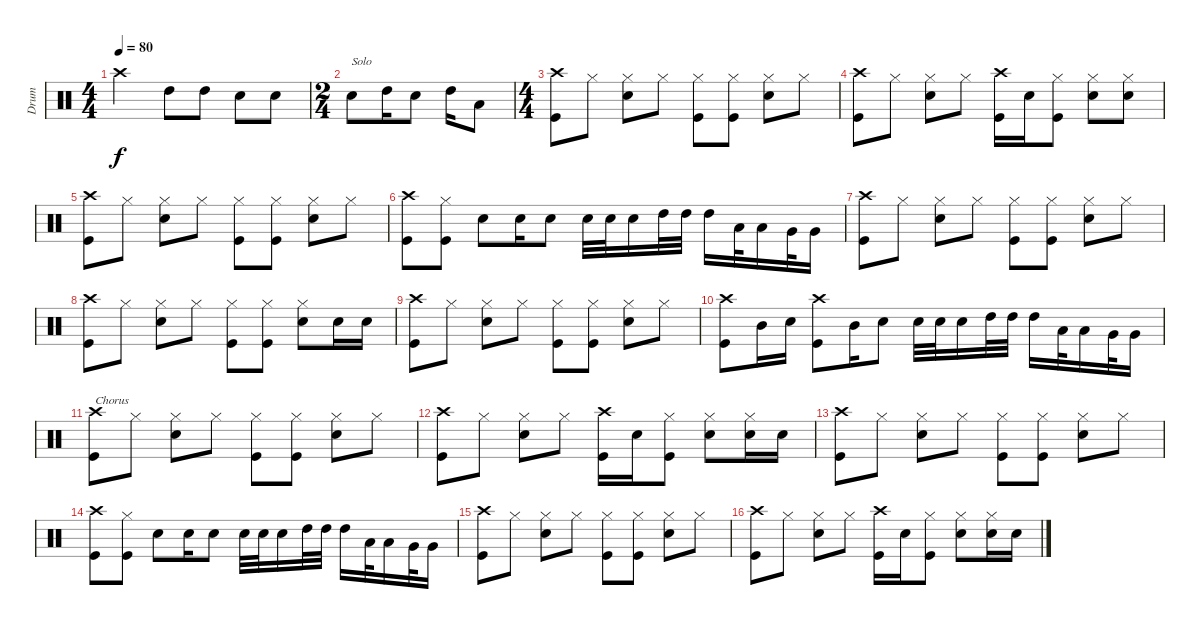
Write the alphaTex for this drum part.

\track ("Drum" "Drum") {instrument percussion}
\staff {score}
\articulation defaults
\ts (4 4)
\tempo 80
\clef neutral
\ks c "Crash high (hit)".2{dy f} "High Tom (hit)".8 "High Tom (hit)".8 "Snare (hit) 2".8 "Snare (hit) 2".8
|
\ts (2 4)
"Snare (hit) 2".8{txt "Solo"} "High Tom (hit)".16 "Snare (hit) 2".8 "High Tom (hit)".16 "Low Tom (hit)".8 |
\ts (4 4)
("Crash high (hit)" "Kick (hit)").8 "Hi-Hat (closed)".8 ("Hi-Hat (closed)" "Snare (hit) 2").8 "Hi-Hat (closed)".8 ("Hi-Hat (closed)" "Kick (hit)").8 ("Hi-Hat (closed)" "Kick (hit)").8 ("Hi-Hat (closed)" "Snare (hit) 2").8 "Hi-Hat (closed)".8 |
("Crash high (hit)" "Kick (hit)").8 "Hi-Hat (closed)".8 ("Hi-Hat (closed)" "Snare (hit) 2").8 "Hi-Hat (closed)".8 ("Crash high (hit)" "Kick (hit)").16 "Snare (hit) 2".16 ("Hi-Hat (closed)" "Kick (hit)").8 ("Hi-Hat (closed)" "Snare (hit) 2").8 ("Hi-Hat (closed)" "Snare (hit) 2").8 |
("Crash high (hit)" "Kick (hit)").8 "Hi-Hat (closed)".8 ("Hi-Hat (closed)" "Snare (hit) 2").8 "Hi-Hat (closed)".8 ("Hi-Hat (closed)" "Kick (hit)").8 ("Hi-Hat (closed)" "Kick (hit)").8 ("Hi-Hat (closed)" "Snare (hit) 2").8 "Hi-Hat (closed)".8 |
("Crash high (hit)" "Kick (hit)").8 ("Hi-Hat (closed)" "Kick (hit)").8 "Snare (hit) 2".8 "Snare (hit) 2".16 "Snare (hit) 2".8 "Snare (hit) 2".32 "Snare (hit) 2".32 "Snare (hit) 2".16 "High Tom (hit)".32 "High Tom (hit)".32 "High Tom (hit)".16 "Low Tom (hit)".32 "Low Tom (hit)".16 "Very Low Tom (hit)".32 "Very Low Tom (hit)".16 |
("Crash high (hit)" "Kick (hit)").8 "Hi-Hat (closed)".8 ("Hi-Hat (closed)" "Snare (hit) 2").8 "Hi-Hat (closed)".8 ("Hi-Hat (closed)" "Kick (hit)").8 ("Hi-Hat (closed)" "Kick (hit)").8 ("Hi-Hat (closed)" "Snare (hit) 2").8 "Hi-Hat (closed)".8 |
("Crash high (hit)" "Kick (hit)").8 "Hi-Hat (closed)".8 ("Hi-Hat (closed)" "Snare (hit) 2").8 "Hi-Hat (closed)".8 ("Hi-Hat (closed)" "Kick (hit)").8 ("Hi-Hat (closed)" "Kick (hit)").8 ("Hi-Hat (closed)" "Snare (hit) 2").8 "Snare (hit) 2".16 "Snare (hit) 2".16 |
("Crash high (hit)" "Kick (hit)").8 "Hi-Hat (closed)".8 ("Hi-Hat (closed)" "Snare (hit) 2").8 "Hi-Hat (closed)".8 ("Hi-Hat (closed)" "Kick (hit)").8 ("Hi-Hat (closed)" "Kick (hit)").8 ("Hi-Hat (closed)" "Snare (hit) 2").8 "Hi-Hat (closed)".8 |
("Crash high (hit)" "Kick (hit)").8 "Mid Tom (hit)".16 "Snare (hit) 2".16 ("Crash high (hit)" "Kick (hit)").8 "Mid Tom (hit)".16 "Snare (hit) 2".8 "Snare (hit) 2".32 "Snare (hit) 2".32 "Snare (hit) 2".16 "High Tom (hit)".32 "High Tom (hit)".32 "High Tom (hit)".16 "Low Tom (hit)".32 "Low Tom (hit)".16 "Very Low Tom (hit)".32 "Very Low Tom (hit)".16 |
("Crash high (hit)" "Kick (hit)").8{txt "Chorus"} "Hi-Hat (closed)".8 ("Hi-Hat (closed)" "Snare (hit) 2").8 "Hi-Hat (closed)".8 ("Hi-Hat (closed)" "Kick (hit)").8 ("Hi-Hat (closed)" "Kick (hit)").8 ("Hi-Hat (closed)" "Snare (hit) 2").8 "Hi-Hat (closed)".8 |
("Crash high (hit)" "Kick (hit)").8 "Hi-Hat (closed)".8 ("Hi-Hat (closed)" "Snare (hit) 2").8 "Hi-Hat (closed)".8 ("Crash high (hit)" "Kick (hit)").16 "Snare (hit) 2".16 ("Hi-Hat (closed)" "Kick (hit)").8 ("Hi-Hat (closed)" "Snare (hit) 2").8 ("Hi-Hat (closed)" "Snare (hit) 2").16 "Snare (hit) 2".16 |
("Crash high (hit)" "Kick (hit)").8 "Hi-Hat (closed)".8 ("Hi-Hat (closed)" "Snare (hit) 2").8 "Hi-Hat (closed)".8 ("Hi-Hat (closed)" "Kick (hit)").8 ("Hi-Hat (closed)" "Kick (hit)").8 ("Hi-Hat (closed)" "Snare (hit) 2").8 "Hi-Hat (closed)".8 |
("Crash high (hit)" "Kick (hit)").8 ("Hi-Hat (closed)" "Kick (hit)").8 "Snare (hit) 2".8 "Snare (hit) 2".16 "Snare (hit) 2".8 "Snare (hit) 2".32 "Snare (hit) 2".32 "Snare (hit) 2".16 "High Tom (hit)".32 "High Tom (hit)".32 "High Tom (hit)".16 "Low Tom (hit)".32 "Low Tom (hit)".16 "Very Low Tom (hit)".32 "Very Low Tom (hit)".16 |
("Crash high (hit)" "Kick (hit)").8 "Hi-Hat (closed)".8 ("Hi-Hat (closed)" "Snare (hit) 2").8 "Hi-Hat (closed)".8 ("Hi-Hat (closed)" "Kick (hit)").8 ("Hi-Hat (closed)" "Kick (hit)").8 ("Hi-Hat (closed)" "Snare (hit) 2").8 "Hi-Hat (closed)".8 |
("Crash high (hit)" "Kick (hit)").8 "Hi-Hat (closed)".8 ("Hi-Hat (closed)" "Snare (hit) 2").8 "Hi-Hat (closed)".8 ("Crash high (hit)" "Kick (hit)").16 "Snare (hit) 2".16 ("Hi-Hat (closed)" "Kick (hit)").8 ("Hi-Hat (closed)" "Snare (hit) 2").8 ("Hi-Hat (closed)" "Snare (hit) 2").16 "Snare (hit) 2".16
